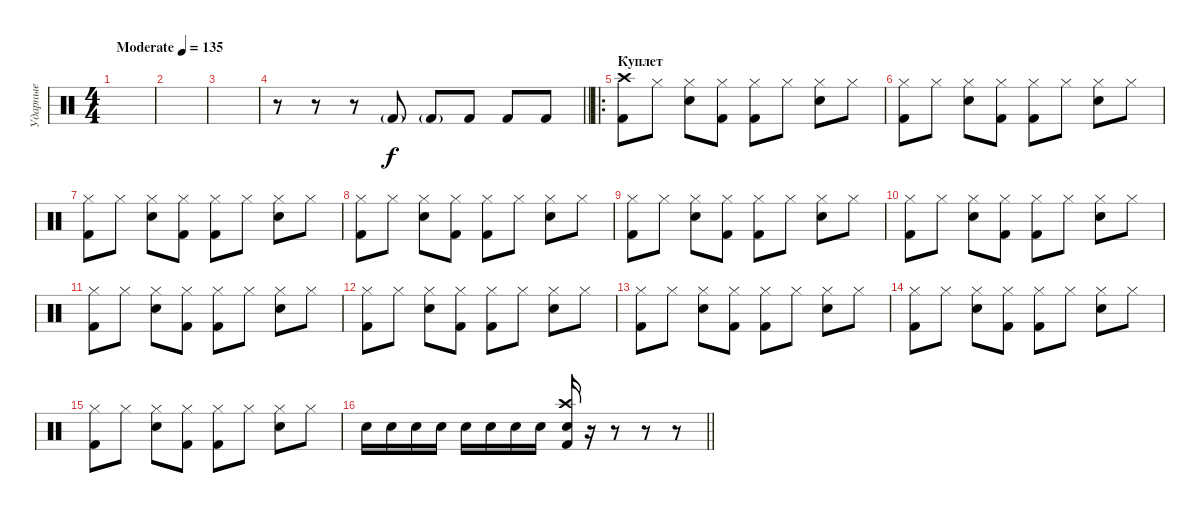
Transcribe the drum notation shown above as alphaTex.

\track ("Ударные" "Ударные") {instrument percussion}
\staff {score}
\articulation defaults
\ts (4 4)
\tempo (135 "Moderate")
\clef neutral
\ks c
|
|
|
\barLineRight lightlight
r.8 r.8 r.8 "Kick (hit) 2"{g}.8 "Kick (hit) 2"{g}.8 "Kick (hit) 2".8{dy f} "Kick (hit) 2".8 "Kick (hit) 2".8 |
\ro
\section ("" "Куплет")
("Crash high (hit)" "Kick (hit) 2").8 "Hi-Hat (closed)".8 ("Hi-Hat (closed)" "Snare (hit) 2").8 ("Hi-Hat (closed)" "Kick (hit) 2").8 ("Hi-Hat (closed)" "Kick (hit) 2").8 "Hi-Hat (closed)".8 ("Hi-Hat (closed)" "Snare (hit) 2").8 "Hi-Hat (closed)".8 |
("Hi-Hat (closed)" "Kick (hit) 2").8 "Hi-Hat (closed)".8 ("Hi-Hat (closed)" "Snare (hit) 2").8 ("Hi-Hat (closed)" "Kick (hit) 2").8 ("Hi-Hat (closed)" "Kick (hit) 2").8 "Hi-Hat (closed)".8 ("Hi-Hat (closed)" "Snare (hit) 2").8 "Hi-Hat (closed)".8 |
("Hi-Hat (closed)" "Kick (hit) 2").8 "Hi-Hat (closed)".8 ("Hi-Hat (closed)" "Snare (hit) 2").8 ("Hi-Hat (closed)" "Kick (hit) 2").8 ("Hi-Hat (closed)" "Kick (hit) 2").8 "Hi-Hat (closed)".8 ("Hi-Hat (closed)" "Snare (hit) 2").8 "Hi-Hat (closed)".8 |
("Hi-Hat (closed)" "Kick (hit) 2").8 "Hi-Hat (closed)".8 ("Hi-Hat (closed)" "Snare (hit) 2").8 ("Hi-Hat (closed)" "Kick (hit) 2").8 ("Hi-Hat (closed)" "Kick (hit) 2").8 "Hi-Hat (closed)".8 ("Hi-Hat (closed)" "Snare (hit) 2").8 "Hi-Hat (closed)".8 |
("Hi-Hat (closed)" "Kick (hit) 2").8 "Hi-Hat (closed)".8 ("Hi-Hat (closed)" "Snare (hit) 2").8 ("Hi-Hat (closed)" "Kick (hit) 2").8 ("Hi-Hat (closed)" "Kick (hit) 2").8 "Hi-Hat (closed)".8 ("Hi-Hat (closed)" "Snare (hit) 2").8 "Hi-Hat (closed)".8 |
("Hi-Hat (closed)" "Kick (hit) 2").8 "Hi-Hat (closed)".8 ("Hi-Hat (closed)" "Snare (hit) 2").8 ("Hi-Hat (closed)" "Kick (hit) 2").8 ("Hi-Hat (closed)" "Kick (hit) 2").8 "Hi-Hat (closed)".8 ("Hi-Hat (closed)" "Snare (hit) 2").8 "Hi-Hat (closed)".8 |
("Hi-Hat (closed)" "Kick (hit) 2").8 "Hi-Hat (closed)".8 ("Hi-Hat (closed)" "Snare (hit) 2").8 ("Hi-Hat (closed)" "Kick (hit) 2").8 ("Hi-Hat (closed)" "Kick (hit) 2").8 "Hi-Hat (closed)".8 ("Hi-Hat (closed)" "Snare (hit) 2").8 "Hi-Hat (closed)".8 |
("Hi-Hat (closed)" "Kick (hit) 2").8 "Hi-Hat (closed)".8 ("Hi-Hat (closed)" "Snare (hit) 2").8 ("Hi-Hat (closed)" "Kick (hit) 2").8 ("Hi-Hat (closed)" "Kick (hit) 2").8 "Hi-Hat (closed)".8 ("Hi-Hat (closed)" "Snare (hit) 2").8 "Hi-Hat (closed)".8 |
("Hi-Hat (closed)" "Kick (hit) 2").8 "Hi-Hat (closed)".8 ("Hi-Hat (closed)" "Snare (hit) 2").8 ("Hi-Hat (closed)" "Kick (hit) 2").8 ("Hi-Hat (closed)" "Kick (hit) 2").8 "Hi-Hat (closed)".8 ("Hi-Hat (closed)" "Snare (hit) 2").8 "Hi-Hat (closed)".8 |
("Hi-Hat (closed)" "Kick (hit) 2").8 "Hi-Hat (closed)".8 ("Hi-Hat (closed)" "Snare (hit) 2").8 ("Hi-Hat (closed)" "Kick (hit) 2").8 ("Hi-Hat (closed)" "Kick (hit) 2").8 "Hi-Hat (closed)".8 ("Hi-Hat (closed)" "Snare (hit) 2").8 "Hi-Hat (closed)".8 |
("Hi-Hat (closed)" "Kick (hit) 2").8 "Hi-Hat (closed)".8 ("Hi-Hat (closed)" "Snare (hit) 2").8 ("Hi-Hat (closed)" "Kick (hit) 2").8 ("Hi-Hat (closed)" "Kick (hit) 2").8 "Hi-Hat (closed)".8 ("Hi-Hat (closed)" "Snare (hit) 2").8 "Hi-Hat (closed)".8 |
\barLineRight lightlight "Snare (hit) 2".16 "Snare (hit) 2".16 "Snare (hit) 2".16 "Snare (hit) 2".16 "Snare (hit) 2".16 "Snare (hit) 2".16 "Snare (hit) 2".16 "Snare (hit) 2".16
("Snare (hit) 2" "Crash high (hit)" "Kick (hit) 2").16 r.16 r.8 r.8 r.8
